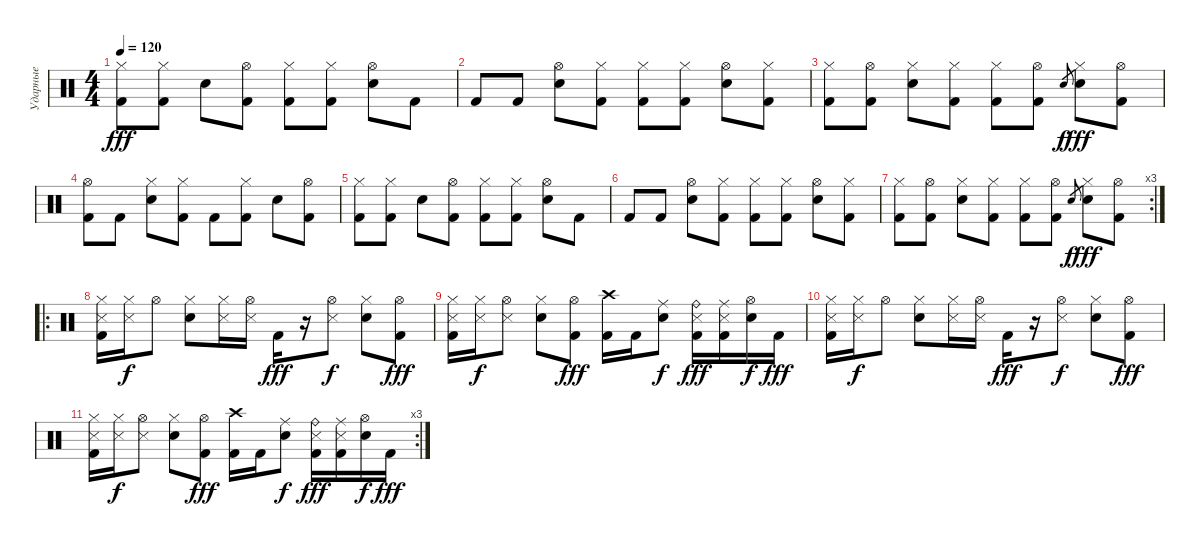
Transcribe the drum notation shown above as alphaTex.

\track ("Ударные" "Ударные") {instrument percussion}
\staff {score}
\articulation defaults
\ts (4 4)
\tempo 120
\clef neutral
\ks c
("Hi-Hat (closed)" "Kick (hit) 2").8{dy fff} ("Hi-Hat (closed)" "Kick (hit) 2").8 "Electric Snare (hit)".8 ("Hi-Hat (open)" "Kick (hit) 2").8 ("Hi-Hat (closed)" "Kick (hit) 2").8 ("Hi-Hat (closed)" "Kick (hit) 2").8 ("Hi-Hat (open)" "Electric Snare (hit)").8 "Kick (hit) 2".8 |
"Kick (hit) 2".8 "Kick (hit) 2".8 ("Hi-Hat (open)" "Electric Snare (hit)").8 ("Hi-Hat (closed)" "Kick (hit) 2").8 ("Hi-Hat (closed)" "Kick (hit) 2").8 ("Hi-Hat (closed)" "Kick (hit) 2").8 ("Hi-Hat (open)" "Electric Snare (hit)").8 ("Hi-Hat (closed)" "Kick (hit) 2").8 |
("Hi-Hat (closed)" "Kick (hit) 2").8 ("Hi-Hat (open)" "Kick (hit) 2").8 ("Hi-Hat (closed)" "Electric Snare (hit)").8 ("Hi-Hat (closed)" "Kick (hit) 2").8 ("Hi-Hat (closed)" "Kick (hit) 2").8 ("Hi-Hat (open)" "Kick (hit) 2").8 "Electric Snare (hit)".8{gr dy f} ("Hi-Hat (closed)" "Electric Snare (hit)").8{dy fff} ("Hi-Hat (open)" "Kick (hit) 2").8 |
("Hi-Hat (open)" "Kick (hit) 2").8 "Kick (hit) 2".8 ("Hi-Hat (closed)" "Electric Snare (hit)").8 ("Hi-Hat (closed)" "Kick (hit) 2").8 "Kick (hit) 2".8 ("Hi-Hat (closed)" "Kick (hit) 2").8 "Electric Snare (hit)".8 ("Hi-Hat (open)" "Kick (hit) 2").8 |
("Hi-Hat (closed)" "Kick (hit) 2").8 ("Hi-Hat (closed)" "Kick (hit) 2").8 "Electric Snare (hit)".8 ("Hi-Hat (open)" "Kick (hit) 2").8 ("Hi-Hat (closed)" "Kick (hit) 2").8 ("Hi-Hat (closed)" "Kick (hit) 2").8 ("Hi-Hat (open)" "Electric Snare (hit)").8 "Kick (hit) 2".8 |
"Kick (hit) 2".8 "Kick (hit) 2".8 ("Hi-Hat (open)" "Electric Snare (hit)").8 ("Hi-Hat (closed)" "Kick (hit) 2").8 ("Hi-Hat (closed)" "Kick (hit) 2").8 ("Hi-Hat (closed)" "Kick (hit) 2").8 ("Hi-Hat (open)" "Electric Snare (hit)").8 ("Hi-Hat (closed)" "Kick (hit) 2").8 |
\rc 3
("Hi-Hat (closed)" "Kick (hit) 2").8 ("Hi-Hat (open)" "Kick (hit) 2").8 ("Hi-Hat (closed)" "Electric Snare (hit)").8 ("Hi-Hat (closed)" "Kick (hit) 2").8 ("Hi-Hat (closed)" "Kick (hit) 2").8 ("Hi-Hat (open)" "Kick (hit) 2").8 "Electric Snare (hit)".8{gr dy f} ("Hi-Hat (closed)" "Electric Snare (hit)").8{dy fff} ("Hi-Hat (open)" "Kick (hit) 2").8 |
\ro
("Hi-Hat (closed)" "Snare (side stick) 3" "Kick (hit) 2").16 ("Hi-Hat (closed)" "Snare (side stick) 3").16{dy f} "Hi-Hat (open)".8 ("Hi-Hat (closed)" "Electric Snare (hit)").8 ("Hi-Hat (closed)" "Snare (side stick) 3").16 ("Hi-Hat (open)" "Snare (side stick) 3").16 "Kick (hit) 2".16{dy fff} r.16 ("Hi-Hat (open)" "Snare (side stick) 3").8{dy f} ("Hi-Hat (closed)" "Electric Snare (hit)").8 ("Hi-Hat (open)" "Kick (hit) 2").8{dy fff} |
("Hi-Hat (closed)" "Snare (side stick) 3" "Kick (hit) 2").16 ("Hi-Hat (closed)" "Snare (side stick) 3").16{dy f} ("Hi-Hat (open)" "Snare (side stick) 3").8 ("Hi-Hat (closed)" "Electric Snare (hit)").8 ("Hi-Hat (open)" "Kick (hit) 2").8{dy fff} ("Crash high (hit)" "Kick (hit) 2").16 "Kick (hit) 2".16 ("Ride (middle)" "Electric Snare (hit)").8{dy f} ("Ride (bell)" "Snare (side stick) 3" "Kick (hit) 2").16{dy fff} ("Ride (middle)" "Snare (side stick) 3" "Kick (hit) 2").16 ("Hi-Hat (open)" "Electric Snare (hit)").16{dy f} "Kick (hit) 2".16{dy fff} |
("Hi-Hat (closed)" "Snare (side stick) 3" "Kick (hit) 2").16 ("Hi-Hat (closed)" "Snare (side stick) 3").16{dy f} "Hi-Hat (open)".8 ("Hi-Hat (closed)" "Electric Snare (hit)").8 ("Hi-Hat (closed)" "Snare (side stick) 3").16 ("Hi-Hat (open)" "Snare (side stick) 3").16 "Kick (hit) 2".16{dy fff} r.16 ("Hi-Hat (open)" "Snare (side stick) 3").8{dy f} ("Hi-Hat (closed)" "Electric Snare (hit)").8 ("Hi-Hat (open)" "Kick (hit) 2").8{dy fff} |
\rc 3
("Hi-Hat (closed)" "Snare (side stick) 3" "Kick (hit) 2").16 ("Hi-Hat (closed)" "Snare (side stick) 3").16{dy f} ("Hi-Hat (open)" "Snare (side stick) 3").8 ("Hi-Hat (closed)" "Electric Snare (hit)").8 ("Hi-Hat (open)" "Kick (hit) 2").8{dy fff} ("Crash high (hit)" "Kick (hit) 2").16 "Kick (hit) 2".16 ("Ride (middle)" "Electric Snare (hit)").8{dy f} ("Ride (bell)" "Snare (side stick) 3" "Kick (hit) 2").16{dy fff} ("Ride (middle)" "Snare (side stick) 3" "Kick (hit) 2").16 ("Hi-Hat (open)" "Electric Snare (hit)").16{dy f} "Kick (hit) 2".16{dy fff}
